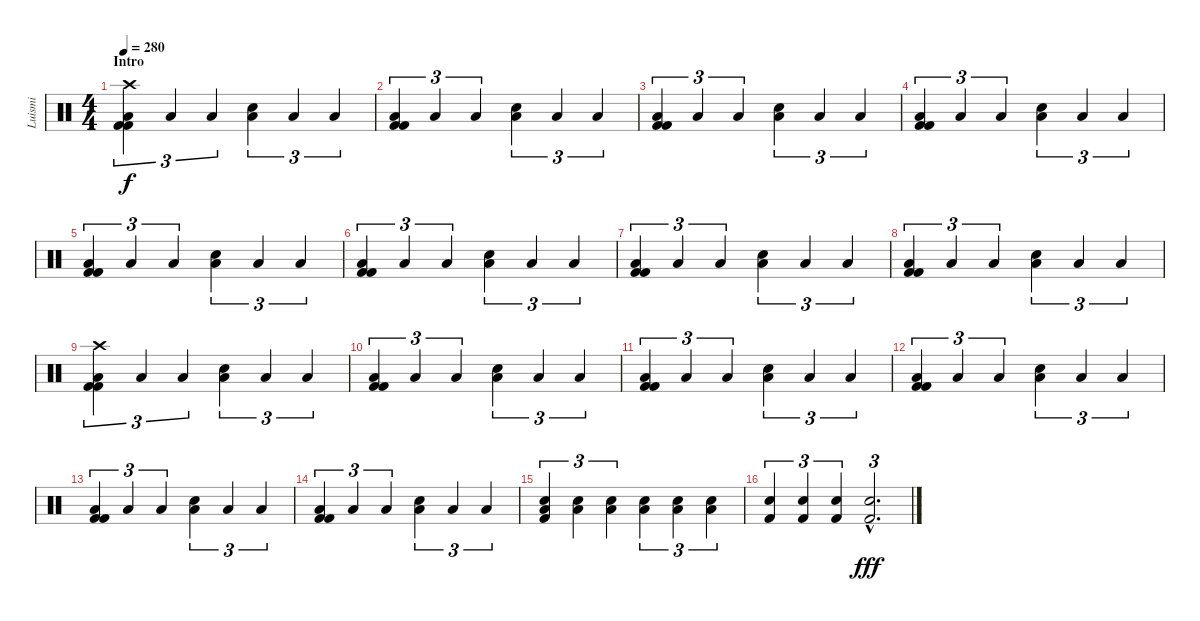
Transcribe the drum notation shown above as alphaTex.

\track ("Luismi" "Luismi") {instrument percussion}
\staff {score}
\articulation defaults
\ts (4 4)
\section ("" "Intro")
\tempo 280
\clef neutral
\ks c
("Crash high (hit)" "Kick (hit) 2" "Low Floor Tom (hit)" "Kick (hit) 2").4{tu (3 2) dy f} "Low Tom (hit)".4{tu (3 2)} "Low Floor Tom (hit)".4{tu (3 2)} ("Snare (hit) 2" "Low Tom (hit)").4{tu (3 2)} "Low Floor Tom (hit)".4{tu (3 2)} "Low Tom (hit)".4{tu (3 2)} |
("Kick (hit) 2" "Low Floor Tom (hit)" "Kick (hit) 2").4{tu (3 2)} "Low Tom (hit)".4{tu (3 2)} "Low Floor Tom (hit)".4{tu (3 2)} ("Snare (hit) 2" "Low Tom (hit)").4{tu (3 2)} "Low Floor Tom (hit)".4{tu (3 2)} "Low Tom (hit)".4{tu (3 2)} |
("Kick (hit) 2" "Low Floor Tom (hit)" "Kick (hit) 2").4{tu (3 2)} "Low Tom (hit)".4{tu (3 2)} "Low Floor Tom (hit)".4{tu (3 2)} ("Snare (hit) 2" "Low Tom (hit)").4{tu (3 2)} "Low Floor Tom (hit)".4{tu (3 2)} "Low Tom (hit)".4{tu (3 2)} |
("Kick (hit) 2" "Low Floor Tom (hit)" "Kick (hit) 2").4{tu (3 2)} "Low Tom (hit)".4{tu (3 2)} "Low Floor Tom (hit)".4{tu (3 2)} ("Snare (hit) 2" "Low Tom (hit)").4{tu (3 2)} "Low Floor Tom (hit)".4{tu (3 2)} "Low Tom (hit)".4{tu (3 2)} |
("Kick (hit) 2" "Low Floor Tom (hit)" "Kick (hit) 2").4{tu (3 2)} "Low Tom (hit)".4{tu (3 2)} "Low Floor Tom (hit)".4{tu (3 2)} ("Snare (hit) 2" "Low Tom (hit)").4{tu (3 2)} "Low Floor Tom (hit)".4{tu (3 2)} "Low Tom (hit)".4{tu (3 2)} |
("Kick (hit) 2" "Low Floor Tom (hit)" "Kick (hit) 2").4{tu (3 2)} "Low Tom (hit)".4{tu (3 2)} "Low Floor Tom (hit)".4{tu (3 2)} ("Snare (hit) 2" "Low Tom (hit)").4{tu (3 2)} "Low Floor Tom (hit)".4{tu (3 2)} "Low Tom (hit)".4{tu (3 2)} |
("Kick (hit) 2" "Low Floor Tom (hit)" "Kick (hit) 2").4{tu (3 2)} "Low Tom (hit)".4{tu (3 2)} "Low Floor Tom (hit)".4{tu (3 2)} ("Snare (hit) 2" "Low Tom (hit)").4{tu (3 2)} "Low Floor Tom (hit)".4{tu (3 2)} "Low Tom (hit)".4{tu (3 2)} |
("Kick (hit) 2" "Low Floor Tom (hit)" "Kick (hit) 2").4{tu (3 2)} "Low Tom (hit)".4{tu (3 2)} "Low Floor Tom (hit)".4{tu (3 2)} ("Snare (hit) 2" "Low Tom (hit)").4{tu (3 2)} "Low Floor Tom (hit)".4{tu (3 2)} "Low Tom (hit)".4{tu (3 2)} |
("Crash high (hit)" "Kick (hit) 2" "Low Floor Tom (hit)" "Kick (hit) 2").4{tu (3 2)} "Low Tom (hit)".4{tu (3 2)} "Low Floor Tom (hit)".4{tu (3 2)} ("Snare (hit) 2" "Low Tom (hit)").4{tu (3 2)} "Low Floor Tom (hit)".4{tu (3 2)} "Low Tom (hit)".4{tu (3 2)} |
("Kick (hit) 2" "Low Floor Tom (hit)" "Kick (hit) 2").4{tu (3 2)} "Low Tom (hit)".4{tu (3 2)} "Low Floor Tom (hit)".4{tu (3 2)} ("Snare (hit) 2" "Low Tom (hit)").4{tu (3 2)} "Low Floor Tom (hit)".4{tu (3 2)} "Low Tom (hit)".4{tu (3 2)} |
("Kick (hit) 2" "Low Floor Tom (hit)" "Kick (hit) 2").4{tu (3 2)} "Low Tom (hit)".4{tu (3 2)} "Low Floor Tom (hit)".4{tu (3 2)} ("Snare (hit) 2" "Low Tom (hit)").4{tu (3 2)} "Low Floor Tom (hit)".4{tu (3 2)} "Low Tom (hit)".4{tu (3 2)} |
("Kick (hit) 2" "Low Floor Tom (hit)" "Kick (hit) 2").4{tu (3 2)} "Low Tom (hit)".4{tu (3 2)} "Low Floor Tom (hit)".4{tu (3 2)} ("Snare (hit) 2" "Low Tom (hit)").4{tu (3 2)} "Low Floor Tom (hit)".4{tu (3 2)} "Low Tom (hit)".4{tu (3 2)} |
("Kick (hit) 2" "Low Floor Tom (hit)" "Kick (hit) 2").4{tu (3 2)} "Low Tom (hit)".4{tu (3 2)} "Low Floor Tom (hit)".4{tu (3 2)} ("Snare (hit) 2" "Low Tom (hit)").4{tu (3 2)} "Low Floor Tom (hit)".4{tu (3 2)} "Low Tom (hit)".4{tu (3 2)} |
("Kick (hit) 2" "Low Floor Tom (hit)" "Kick (hit) 2").4{tu (3 2)} "Low Tom (hit)".4{tu (3 2)} "Low Floor Tom (hit)".4{tu (3 2)} ("Snare (hit) 2" "Low Tom (hit)").4{tu (3 2)} "Low Floor Tom (hit)".4{tu (3 2)} "Low Tom (hit)".4{tu (3 2)} |
("Snare (hit) 2" "Low Floor Tom (hit)" "Kick (hit) 2").4{tu (3 2)} ("Snare (hit) 2" "Low Tom (hit)").4{tu (3 2)} ("Snare (hit) 2" "Low Floor Tom (hit)").4{tu (3 2)} ("Snare (hit) 2" "Low Tom (hit)").4{tu (3 2)} ("Snare (hit) 2" "Low Floor Tom (hit)").4{tu (3 2)} ("Snare (hit) 2" "Low Tom (hit)").4{tu (3 2)} |
("Snare (hit) 2" "Kick (hit) 2").4{tu (3 2)} ("Snare (hit) 2" "Kick (hit) 2").4{tu (3 2)} ("Snare (hit) 2" "Kick (hit) 2").4{tu (3 2)} ("Snare (hit) 2"{hac} "Kick (hit) 2"{hac}).2{d tu (3 2) dy fff}
